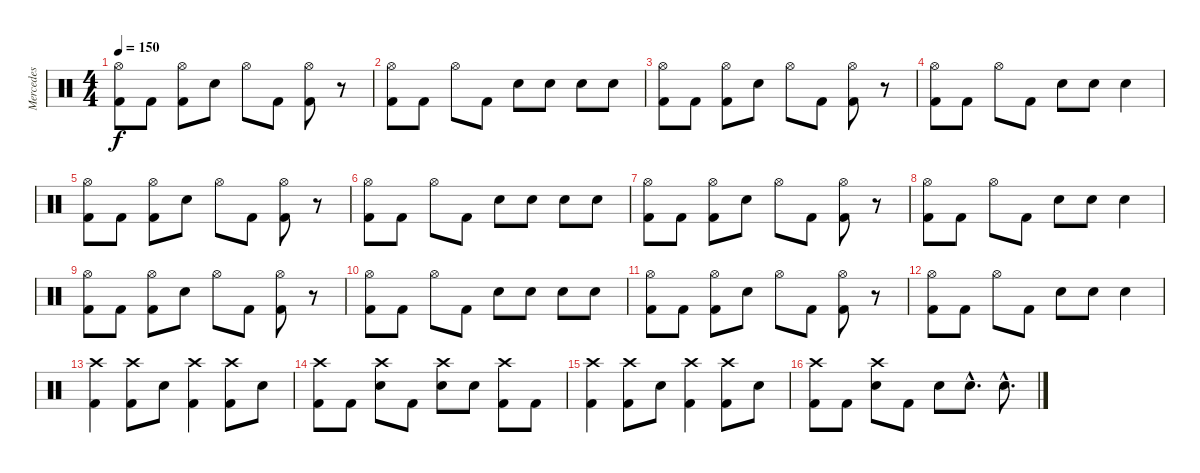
\track ("Mercedes" "Mercedes") {instrument percussion}
\staff {score}
\articulation defaults
\ts (4 4)
\tempo 150
\clef neutral
\ks c
("Kick (hit) 2" "Hi-Hat (open)").8{dy f} "Kick (hit) 2".8 ("Kick (hit) 2" "Hi-Hat (open)").8 "Snare (hit) 2".8 "Hi-Hat (open)".8 "Kick (hit) 2".8 ("Kick (hit) 2" "Hi-Hat (open)").8 r.8 |
("Kick (hit) 2" "Hi-Hat (open)").8 "Kick (hit) 2".8 "Hi-Hat (open)".8 "Kick (hit) 2".8 "Snare (hit) 2".8 "Snare (hit) 2".8 "Snare (hit) 2".8 "Snare (hit) 2".8 |
("Kick (hit) 2" "Hi-Hat (open)").8 "Kick (hit) 2".8 ("Kick (hit) 2" "Hi-Hat (open)").8 "Snare (hit) 2".8 "Hi-Hat (open)".8 "Kick (hit) 2".8 ("Kick (hit) 2" "Hi-Hat (open)").8 r.8 |
("Kick (hit) 2" "Hi-Hat (open)").8 "Kick (hit) 2".8 "Hi-Hat (open)".8 "Kick (hit) 2".8 "Snare (hit) 2".8 "Snare (hit) 2".8 "Snare (hit) 2".4 |
("Kick (hit) 2" "Hi-Hat (open)").8 "Kick (hit) 2".8 ("Kick (hit) 2" "Hi-Hat (open)").8 "Snare (hit) 2".8 "Hi-Hat (open)".8 "Kick (hit) 2".8 ("Kick (hit) 2" "Hi-Hat (open)").8 r.8 |
("Kick (hit) 2" "Hi-Hat (open)").8 "Kick (hit) 2".8 "Hi-Hat (open)".8 "Kick (hit) 2".8 "Snare (hit) 2".8 "Snare (hit) 2".8 "Snare (hit) 2".8 "Snare (hit) 2".8 |
("Kick (hit) 2" "Hi-Hat (open)").8 "Kick (hit) 2".8 ("Kick (hit) 2" "Hi-Hat (open)").8 "Snare (hit) 2".8 "Hi-Hat (open)".8 "Kick (hit) 2".8 ("Kick (hit) 2" "Hi-Hat (open)").8 r.8 |
("Kick (hit) 2" "Hi-Hat (open)").8 "Kick (hit) 2".8 "Hi-Hat (open)".8 "Kick (hit) 2".8 "Snare (hit) 2".8 "Snare (hit) 2".8 "Snare (hit) 2".4 |
("Kick (hit) 2" "Hi-Hat (open)").8 "Kick (hit) 2".8 ("Kick (hit) 2" "Hi-Hat (open)").8 "Snare (hit) 2".8 "Hi-Hat (open)".8 "Kick (hit) 2".8 ("Kick (hit) 2" "Hi-Hat (open)").8 r.8 |
("Kick (hit) 2" "Hi-Hat (open)").8 "Kick (hit) 2".8 "Hi-Hat (open)".8 "Kick (hit) 2".8 "Snare (hit) 2".8 "Snare (hit) 2".8 "Snare (hit) 2".8 "Snare (hit) 2".8 |
("Kick (hit) 2" "Hi-Hat (open)").8 "Kick (hit) 2".8 ("Kick (hit) 2" "Hi-Hat (open)").8 "Snare (hit) 2".8 "Hi-Hat (open)".8 "Kick (hit) 2".8 ("Kick (hit) 2" "Hi-Hat (open)").8 r.8 |
("Kick (hit) 2" "Hi-Hat (open)").8 "Kick (hit) 2".8 "Hi-Hat (open)".8 "Kick (hit) 2".8 "Snare (hit) 2".8 "Snare (hit) 2".8 "Snare (hit) 2".4 |
("Kick (hit) 2" "Crash high (hit)").4 ("Kick (hit) 2" "Crash high (hit)").8 "Snare (hit) 2".8 ("Kick (hit) 2" "Crash high (hit)").4 ("Kick (hit) 2" "Crash high (hit)").8 "Snare (hit) 2".8 |
("Kick (hit) 2" "Crash high (hit)").8 "Kick (hit) 2".8 ("Snare (hit) 2" "Crash high (hit)").8 "Kick (hit) 2".8 ("Snare (hit) 2" "Crash high (hit)").8 "Snare (hit) 2".8 ("Kick (hit) 2" "Crash high (hit)").8 "Kick (hit) 2".8 |
("Kick (hit) 2" "Crash high (hit)").4 ("Kick (hit) 2" "Crash high (hit)").8 "Snare (hit) 2".8 ("Kick (hit) 2" "Crash high (hit)").4 ("Kick (hit) 2" "Crash high (hit)").8 "Snare (hit) 2".8 |
("Kick (hit) 2" "Crash high (hit)").8 "Kick (hit) 2".8 ("Snare (hit) 2" "Crash high (hit)").8 "Kick (hit) 2".8 "Snare (hit) 2".8 "Snare (hit) 2"{hac}.8{d} "Snare (hit) 2"{hac}.8{d}
